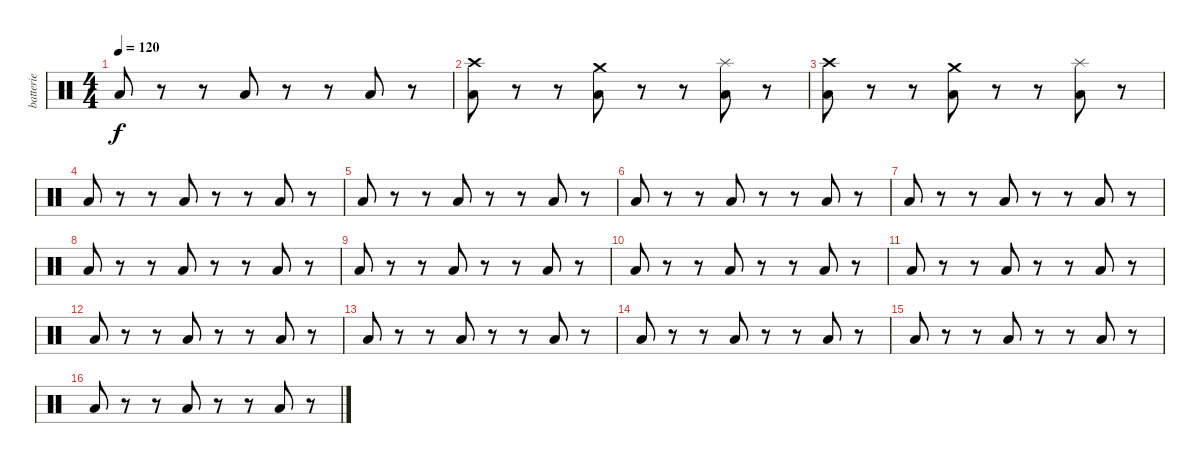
\track ("batterie" "batterie") {instrument percussion}
\staff {score}
\articulation defaults
\ts (4 4)
\tempo 120
\clef neutral
\ks c "Low Floor Tom (hit)".8{dy f}
r.8 r.8 "Low Floor Tom (hit)".8 r.8 r.8 "Low Floor Tom (hit)".8 r.8 |
("Crash high (hit)" "Low Floor Tom (hit)").8 r.8 r.8 ("Crash medium (hit)" "Low Floor Tom (hit)").8 r.8 r.8 ("Splash (hit)" "Low Floor Tom (hit)").8 r.8 |
("Crash high (hit)" "Low Floor Tom (hit)").8 r.8 r.8 ("Crash medium (hit)" "Low Floor Tom (hit)").8 r.8 r.8 ("Splash (hit)" "Low Floor Tom (hit)").8 r.8 |
"Low Floor Tom (hit)".8 r.8 r.8 "Low Floor Tom (hit)".8 r.8 r.8 "Low Floor Tom (hit)".8 r.8 |
"Low Floor Tom (hit)".8 r.8 r.8 "Low Floor Tom (hit)".8 r.8 r.8 "Low Floor Tom (hit)".8 r.8 |
"Low Floor Tom (hit)".8 r.8 r.8 "Low Floor Tom (hit)".8 r.8 r.8 "Low Floor Tom (hit)".8 r.8 |
"Low Floor Tom (hit)".8 r.8 r.8 "Low Floor Tom (hit)".8 r.8 r.8 "Low Floor Tom (hit)".8 r.8 |
"Low Floor Tom (hit)".8 r.8 r.8 "Low Floor Tom (hit)".8 r.8 r.8 "Low Floor Tom (hit)".8 r.8 |
"Low Floor Tom (hit)".8 r.8 r.8 "Low Floor Tom (hit)".8 r.8 r.8 "Low Floor Tom (hit)".8 r.8 |
"Low Floor Tom (hit)".8 r.8 r.8 "Low Floor Tom (hit)".8 r.8 r.8 "Low Floor Tom (hit)".8 r.8 |
"Low Floor Tom (hit)".8 r.8 r.8 "Low Floor Tom (hit)".8 r.8 r.8 "Low Floor Tom (hit)".8 r.8 |
"Low Floor Tom (hit)".8 r.8 r.8 "Low Floor Tom (hit)".8 r.8 r.8 "Low Floor Tom (hit)".8 r.8 |
"Low Floor Tom (hit)".8 r.8 r.8 "Low Floor Tom (hit)".8 r.8 r.8 "Low Floor Tom (hit)".8 r.8 |
"Low Floor Tom (hit)".8 r.8 r.8 "Low Floor Tom (hit)".8 r.8 r.8 "Low Floor Tom (hit)".8 r.8 |
"Low Floor Tom (hit)".8 r.8 r.8 "Low Floor Tom (hit)".8 r.8 r.8 "Low Floor Tom (hit)".8 r.8 |
"Low Floor Tom (hit)".8 r.8 r.8 "Low Floor Tom (hit)".8 r.8 r.8 "Low Floor Tom (hit)".8 r.8
